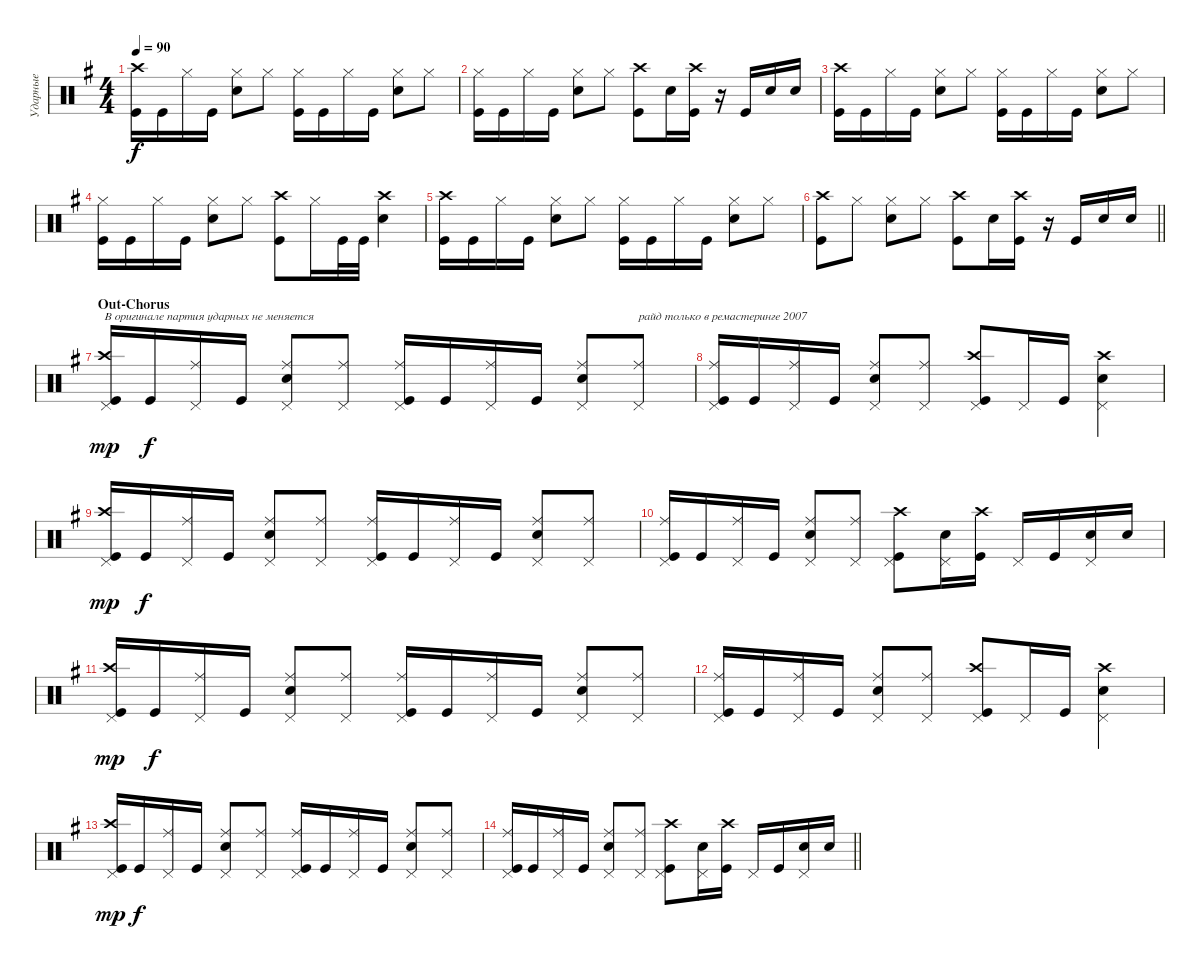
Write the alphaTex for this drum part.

\track ("Ударные" "Ударные") {instrument percussion}
\staff {score}
\articulation defaults
\ts (4 4)
\tempo 90
\clef neutral
\ks eminor
("Kick (hit)" "Crash high (hit)").16{dy f} "Kick (hit)".16 "Hi-Hat (closed)".16 "Kick (hit)".16 ("Snare (hit) 2" "Hi-Hat (closed)").8 "Hi-Hat (closed)".8 ("Hi-Hat (closed)" "Kick (hit)").16 "Kick (hit)".16 "Hi-Hat (closed)".16 "Kick (hit)".16 ("Snare (hit) 2" "Hi-Hat (closed)").8 "Hi-Hat (closed)".8 |
("Hi-Hat (closed)" "Kick (hit)").16 "Kick (hit)".16 "Hi-Hat (closed)".16 "Kick (hit)".16 ("Snare (hit) 2" "Hi-Hat (closed)").8 "Hi-Hat (closed)".8 ("Kick (hit)" "Crash high (hit)").8 "Snare (hit) 2".16 ("Kick (hit)" "Crash high (hit)").16 r.16 "Kick (hit)".16 "Snare (hit) 2".16 "Snare (hit) 2".16 |
("Kick (hit)" "Crash high (hit)").16 "Kick (hit)".16 "Hi-Hat (closed)".16 "Kick (hit)".16 ("Snare (hit) 2" "Hi-Hat (closed)").8 "Hi-Hat (closed)".8 ("Hi-Hat (closed)" "Kick (hit)").16 "Kick (hit)".16 "Hi-Hat (closed)".16 "Kick (hit)".16 ("Snare (hit) 2" "Hi-Hat (closed)").8 "Hi-Hat (closed)".8 |
("Hi-Hat (closed)" "Kick (hit)").16 "Kick (hit)".16 "Hi-Hat (closed)".16 "Kick (hit)".16 ("Snare (hit) 2" "Hi-Hat (closed)").8 "Hi-Hat (closed)".8 ("Kick (hit)" "Crash high (hit)").8 "Hi-Hat (closed)".16 "Kick (hit)".32 "Kick (hit)".32 ("Snare (hit) 2" "Crash high (hit)").4 |
("Kick (hit)" "Crash high (hit)").16 "Kick (hit)".16 "Hi-Hat (closed)".16 "Kick (hit)".16 ("Snare (hit) 2" "Hi-Hat (closed)").8 "Hi-Hat (closed)".8 ("Hi-Hat (closed)" "Kick (hit)").16 "Kick (hit)".16 "Hi-Hat (closed)".16 "Kick (hit)".16 ("Snare (hit) 2" "Hi-Hat (closed)").8 "Hi-Hat (closed)".8 |
\barLineRight lightlight
("Crash high (hit)" "Kick (hit)").8 "Hi-Hat (closed)".8 ("Snare (hit) 2" "Hi-Hat (closed)").8 "Hi-Hat (closed)".8 ("Kick (hit)" "Crash high (hit)").8 "Snare (hit) 2".16 ("Kick (hit)" "Crash high (hit)").16 r.16 "Kick (hit)".16 "Snare (hit) 2".16 "Snare (hit) 2".16 |
\section ("" "Out-Chorus")
("Kick (hit)" "Crash high (hit)" "Pedal Hi-Hat (hit)").16{txt "В оригинале партия ударных не меняется" dy mp} "Kick (hit)".16{dy f} ("Ride (middle)" "Pedal Hi-Hat (hit)").16 "Kick (hit)".16 ("Snare (hit) 2" "Ride (middle)" "Pedal Hi-Hat (hit)").8 ("Pedal Hi-Hat (hit)" "Ride (middle)").8 ("Pedal Hi-Hat (hit)" "Kick (hit)" "Ride (middle)").16 "Kick (hit)".16 ("Pedal Hi-Hat (hit)" "Ride (middle)").16 "Kick (hit)".16 ("Snare (hit) 2" "Pedal Hi-Hat (hit)" "Ride (middle)").8 ("Pedal Hi-Hat (hit)" "Ride (middle)").8{txt "райд только в ремастеринге 2007"} |
("Pedal Hi-Hat (hit)" "Kick (hit)" "Ride (middle)").16 "Kick (hit)".16 ("Pedal Hi-Hat (hit)" "Ride (middle)").16 "Kick (hit)".16 ("Snare (hit) 2" "Pedal Hi-Hat (hit)" "Ride (middle)").8 ("Pedal Hi-Hat (hit)" "Ride (middle)").8 ("Kick (hit)" "Crash high (hit)" "Pedal Hi-Hat (hit)").8 "Pedal Hi-Hat (hit)".16 "Kick (hit)".16 ("Snare (hit) 2" "Crash high (hit)" "Pedal Hi-Hat (hit)").4 |
("Kick (hit)" "Crash high (hit)" "Pedal Hi-Hat (hit)").16{dy mp} "Kick (hit)".16{dy f} ("Ride (middle)" "Pedal Hi-Hat (hit)").16 "Kick (hit)".16 ("Snare (hit) 2" "Ride (middle)" "Pedal Hi-Hat (hit)").8 ("Pedal Hi-Hat (hit)" "Ride (middle)").8 ("Pedal Hi-Hat (hit)" "Kick (hit)" "Ride (middle)").16 "Kick (hit)".16 ("Pedal Hi-Hat (hit)" "Ride (middle)").16 "Kick (hit)".16 ("Snare (hit) 2" "Pedal Hi-Hat (hit)" "Ride (middle)").8 ("Pedal Hi-Hat (hit)" "Ride (middle)").8 |
("Pedal Hi-Hat (hit)" "Kick (hit)" "Ride (middle)").16 "Kick (hit)".16 ("Pedal Hi-Hat (hit)" "Ride (middle)").16 "Kick (hit)".16 ("Snare (hit) 2" "Pedal Hi-Hat (hit)" "Ride (middle)").8 ("Pedal Hi-Hat (hit)" "Ride (middle)").8 ("Kick (hit)" "Crash high (hit)" "Pedal Hi-Hat (hit)").8 ("Snare (hit) 2" "Pedal Hi-Hat (hit)").16 ("Kick (hit)" "Crash high (hit)").16 "Pedal Hi-Hat (hit)".16 "Kick (hit)".16 ("Snare (hit) 2" "Pedal Hi-Hat (hit)").16 "Snare (hit) 2".16 |
("Kick (hit)" "Crash high (hit)" "Pedal Hi-Hat (hit)").16{dy mp volume 0} "Kick (hit)".16{dy f} ("Ride (middle)" "Pedal Hi-Hat (hit)").16 "Kick (hit)".16 ("Snare (hit) 2" "Ride (middle)" "Pedal Hi-Hat (hit)").8 ("Pedal Hi-Hat (hit)" "Ride (middle)").8 ("Pedal Hi-Hat (hit)" "Kick (hit)" "Ride (middle)").16 "Kick (hit)".16 ("Pedal Hi-Hat (hit)" "Ride (middle)").16 "Kick (hit)".16 ("Snare (hit) 2" "Pedal Hi-Hat (hit)" "Ride (middle)").8 ("Pedal Hi-Hat (hit)" "Ride (middle)").8 |
("Pedal Hi-Hat (hit)" "Kick (hit)" "Ride (middle)").16 "Kick (hit)".16 ("Pedal Hi-Hat (hit)" "Ride (middle)").16 "Kick (hit)".16 ("Snare (hit) 2" "Pedal Hi-Hat (hit)" "Ride (middle)").8 ("Pedal Hi-Hat (hit)" "Ride (middle)").8 ("Kick (hit)" "Crash high (hit)" "Pedal Hi-Hat (hit)").8 "Pedal Hi-Hat (hit)".16 "Kick (hit)".16 ("Snare (hit) 2" "Crash high (hit)" "Pedal Hi-Hat (hit)").4 |
("Kick (hit)" "Crash high (hit)" "Pedal Hi-Hat (hit)").16{dy mp} "Kick (hit)".16{dy f} ("Ride (middle)" "Pedal Hi-Hat (hit)").16 "Kick (hit)".16 ("Snare (hit) 2" "Ride (middle)" "Pedal Hi-Hat (hit)").8 ("Pedal Hi-Hat (hit)" "Ride (middle)").8 ("Pedal Hi-Hat (hit)" "Kick (hit)" "Ride (middle)").16 "Kick (hit)".16 ("Pedal Hi-Hat (hit)" "Ride (middle)").16 "Kick (hit)".16 ("Snare (hit) 2" "Pedal Hi-Hat (hit)" "Ride (middle)").8 ("Pedal Hi-Hat (hit)" "Ride (middle)").8 |
\barLineRight lightlight
("Pedal Hi-Hat (hit)" "Kick (hit)" "Ride (middle)").16 "Kick (hit)".16 ("Pedal Hi-Hat (hit)" "Ride (middle)").16 "Kick (hit)".16 ("Snare (hit) 2" "Pedal Hi-Hat (hit)" "Ride (middle)").8 ("Pedal Hi-Hat (hit)" "Ride (middle)").8 ("Kick (hit)" "Crash high (hit)" "Pedal Hi-Hat (hit)").8 ("Snare (hit) 2" "Pedal Hi-Hat (hit)").16 ("Kick (hit)" "Crash high (hit)").16 "Pedal Hi-Hat (hit)".16 "Kick (hit)".16 ("Snare (hit) 2" "Pedal Hi-Hat (hit)").16 "Snare (hit) 2".16
